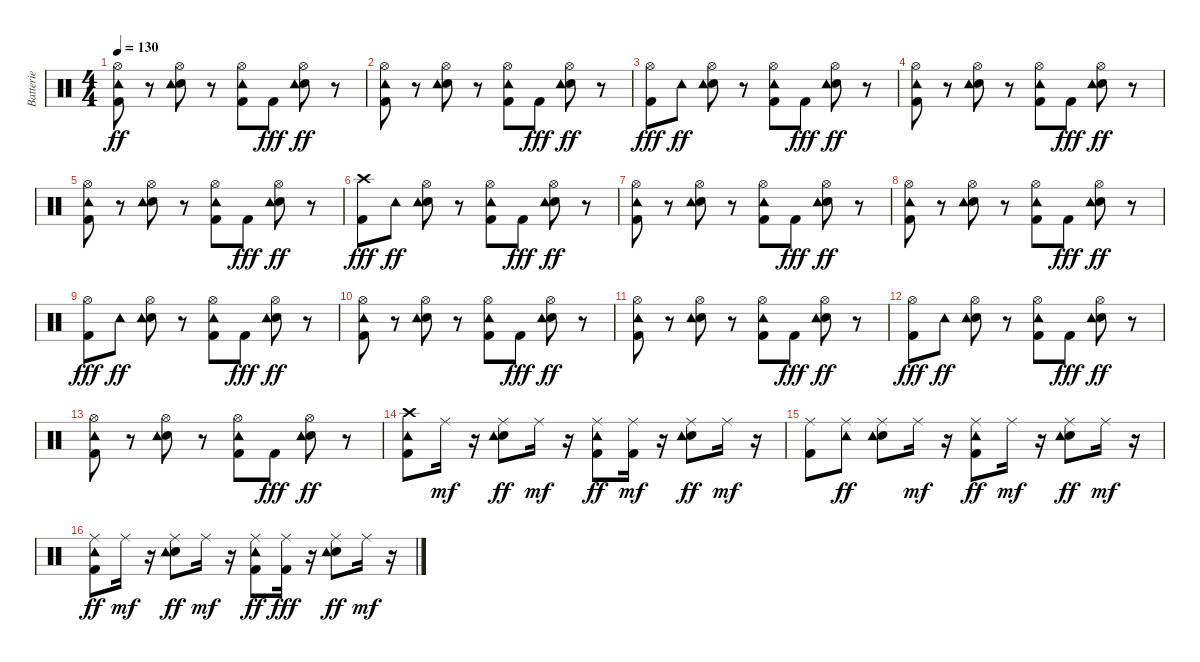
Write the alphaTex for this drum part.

\track ("Batterie" "Batterie") {instrument percussion}
\staff {score}
\articulation defaults
\ts (4 4)
\tempo 130
\clef neutral
\ks c
("Hi-Hat (open)" "Kick (hit) 2" "Tambourine (hit)").8{dy ff} r.8 ("Hi-Hat (open)" "Snare (hit) 2" "Tambourine (hit)").8 r.8 ("Hi-Hat (open)" "Kick (hit) 2" "Tambourine (hit)").8 "Kick (hit) 2".8{dy fff} ("Hi-Hat (open)" "Snare (hit) 2" "Tambourine (hit)").8{dy ff} r.8 |
("Hi-Hat (open)" "Kick (hit) 2" "Tambourine (hit)").8 r.8 ("Hi-Hat (open)" "Snare (hit) 2" "Tambourine (hit)").8 r.8 ("Hi-Hat (open)" "Kick (hit) 2" "Tambourine (hit)").8 "Kick (hit) 2".8{dy fff} ("Hi-Hat (open)" "Snare (hit) 2" "Tambourine (hit)").8{dy ff} r.8 |
("Hi-Hat (open)" "Kick (hit) 2").8{dy fff} "Tambourine (hit)".8{dy ff} ("Hi-Hat (open)" "Snare (hit) 2" "Tambourine (hit)").8 r.8 ("Hi-Hat (open)" "Kick (hit) 2" "Tambourine (hit)").8 "Kick (hit) 2".8{dy fff} ("Hi-Hat (open)" "Snare (hit) 2" "Tambourine (hit)").8{dy ff} r.8 |
("Hi-Hat (open)" "Kick (hit) 2" "Tambourine (hit)").8 r.8 ("Hi-Hat (open)" "Snare (hit) 2" "Tambourine (hit)").8 r.8 ("Hi-Hat (open)" "Kick (hit) 2" "Tambourine (hit)").8 "Kick (hit) 2".8{dy fff} ("Hi-Hat (open)" "Snare (hit) 2" "Tambourine (hit)").8{dy ff} r.8 |
("Hi-Hat (open)" "Kick (hit) 2" "Tambourine (hit)").8 r.8 ("Hi-Hat (open)" "Snare (hit) 2" "Tambourine (hit)").8 r.8 ("Hi-Hat (open)" "Kick (hit) 2" "Tambourine (hit)").8 "Kick (hit) 2".8{dy fff} ("Hi-Hat (open)" "Snare (hit) 2" "Tambourine (hit)").8{dy ff} r.8 |
("Crash high (hit)" "Kick (hit) 2").8{dy fff} "Tambourine (hit)".8{dy ff} ("Hi-Hat (open)" "Snare (hit) 2" "Tambourine (hit)").8 r.8 ("Hi-Hat (open)" "Kick (hit) 2" "Tambourine (hit)").8 "Kick (hit) 2".8{dy fff} ("Hi-Hat (open)" "Snare (hit) 2" "Tambourine (hit)").8{dy ff} r.8 |
("Hi-Hat (open)" "Kick (hit) 2" "Tambourine (hit)").8 r.8 ("Hi-Hat (open)" "Snare (hit) 2" "Tambourine (hit)").8 r.8 ("Hi-Hat (open)" "Kick (hit) 2" "Tambourine (hit)").8 "Kick (hit) 2".8{dy fff} ("Hi-Hat (open)" "Snare (hit) 2" "Tambourine (hit)").8{dy ff} r.8 |
("Hi-Hat (open)" "Kick (hit) 2" "Tambourine (hit)").8 r.8 ("Hi-Hat (open)" "Snare (hit) 2" "Tambourine (hit)").8 r.8 ("Hi-Hat (open)" "Kick (hit) 2" "Tambourine (hit)").8 "Kick (hit) 2".8{dy fff} ("Hi-Hat (open)" "Snare (hit) 2" "Tambourine (hit)").8{dy ff} r.8 |
("Hi-Hat (open)" "Kick (hit) 2").8{dy fff} "Tambourine (hit)".8{dy ff} ("Hi-Hat (open)" "Snare (hit) 2" "Tambourine (hit)").8 r.8 ("Hi-Hat (open)" "Kick (hit) 2" "Tambourine (hit)").8 "Kick (hit) 2".8{dy fff} ("Hi-Hat (open)" "Snare (hit) 2" "Tambourine (hit)").8{dy ff} r.8 |
("Hi-Hat (open)" "Kick (hit) 2" "Tambourine (hit)").8 r.8 ("Hi-Hat (open)" "Snare (hit) 2" "Tambourine (hit)").8 r.8 ("Hi-Hat (open)" "Kick (hit) 2" "Tambourine (hit)").8 "Kick (hit) 2".8{dy fff} ("Hi-Hat (open)" "Snare (hit) 2" "Tambourine (hit)").8{dy ff} r.8 |
("Hi-Hat (open)" "Kick (hit) 2" "Tambourine (hit)").8 r.8 ("Hi-Hat (open)" "Snare (hit) 2" "Tambourine (hit)").8 r.8 ("Hi-Hat (open)" "Kick (hit) 2" "Tambourine (hit)").8 "Kick (hit) 2".8{dy fff} ("Hi-Hat (open)" "Snare (hit) 2" "Tambourine (hit)").8{dy ff} r.8 |
("Hi-Hat (open)" "Kick (hit) 2").8{dy fff} "Tambourine (hit)".8{dy ff} ("Hi-Hat (open)" "Snare (hit) 2" "Tambourine (hit)").8 r.8 ("Hi-Hat (open)" "Kick (hit) 2" "Tambourine (hit)").8 "Kick (hit) 2".8{dy fff} ("Hi-Hat (open)" "Snare (hit) 2" "Tambourine (hit)").8{dy ff} r.8 |
("Hi-Hat (open)" "Kick (hit) 2" "Tambourine (hit)").8 r.8 ("Hi-Hat (open)" "Snare (hit) 2" "Tambourine (hit)").8 r.8 ("Hi-Hat (open)" "Kick (hit) 2" "Tambourine (hit)").8 "Kick (hit) 2".8{dy fff} ("Hi-Hat (open)" "Snare (hit) 2" "Tambourine (hit)").8{dy ff} r.8 |
("Kick (hit) 2" "Crash high (hit)" "Tambourine (hit)").8 "Ride (middle)".16{dy mf} r.16 ("Snare (hit) 2" "Ride (middle)" "Tambourine (hit)").8{dy ff} "Ride (middle)".16{dy mf} r.16 ("Kick (hit) 2" "Ride (middle)" "Tambourine (hit)").8{dy ff} ("Kick (hit) 2" "Ride (middle)").16{dy mf} r.16 ("Snare (hit) 2" "Ride (middle)" "Tambourine (hit)").8{dy ff} "Ride (middle)".16{dy mf} r.16 |
("Kick (hit) 2" "Ride (middle)").8 ("Ride (middle)" "Tambourine (hit)").8{dy ff} ("Snare (hit) 2" "Ride (middle)" "Tambourine (hit)").8 "Ride (middle)".16{dy mf} r.16 ("Kick (hit) 2" "Ride (middle)" "Tambourine (hit)").8{dy ff} "Ride (middle)".16{dy mf} r.16 ("Snare (hit) 2" "Ride (middle)" "Tambourine (hit)").8{dy ff} "Ride (middle)".16{dy mf} r.16 |
("Ride (middle)" "Kick (hit) 2" "Tambourine (hit)").8{dy ff} "Ride (middle)".16{dy mf} r.16 ("Ride (middle)" "Snare (hit) 2" "Tambourine (hit)").8{dy ff} "Ride (middle)".16{dy mf} r.16 ("Ride (middle)" "Kick (hit) 2" "Tambourine (hit)").8{dy ff} ("Ride (middle)" "Kick (hit) 2").16{dy fff} r.16 ("Snare (hit) 2" "Ride (middle)" "Tambourine (hit)").8{dy ff} "Ride (middle)".16{dy mf} r.16
